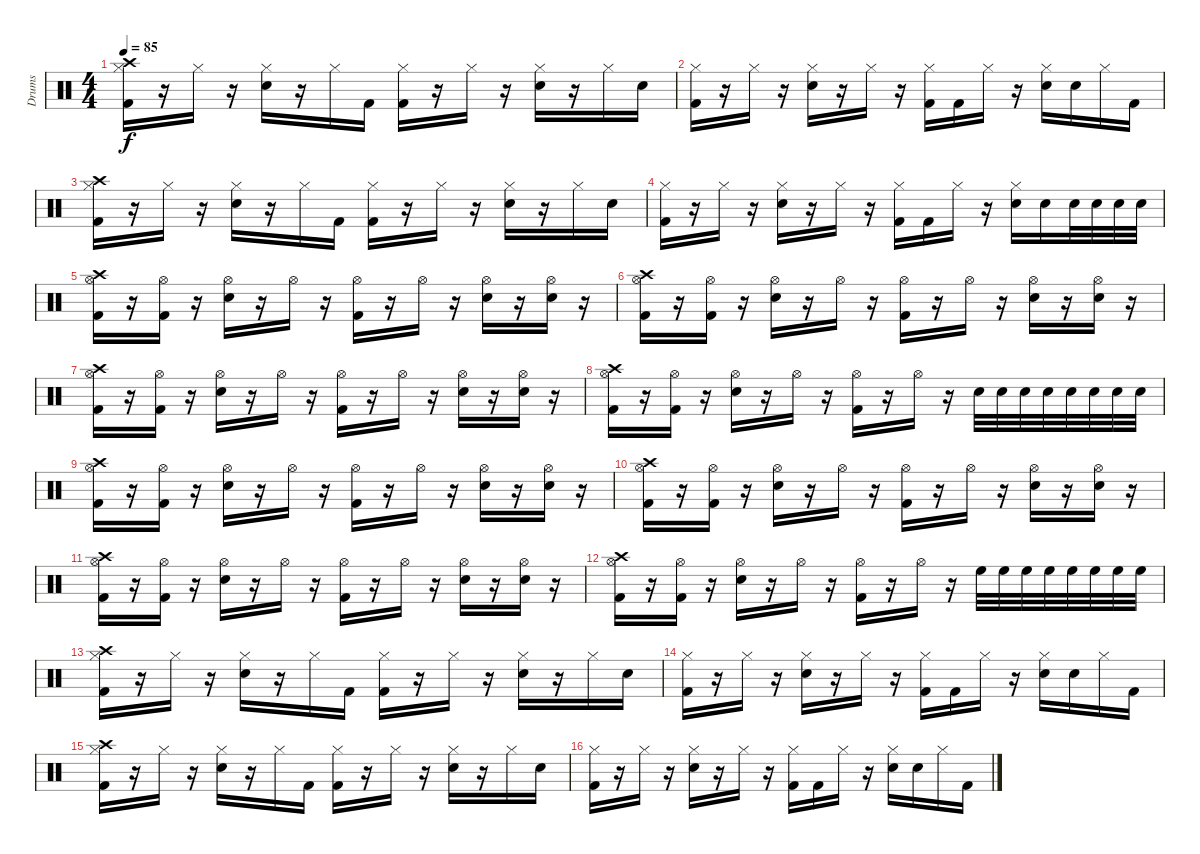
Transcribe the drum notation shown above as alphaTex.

\track ("Drums" "Drums") {instrument percussion}
\staff {score}
\articulation defaults
\ts (4 4)
\tempo 85
\clef neutral
\ks c
("Hi-Hat (closed)" "Kick (hit) 2" "Crash high (hit)").16{dy f} r.16 "Hi-Hat (closed)".16 r.16 ("Hi-Hat (closed)" "Electric Snare (hit)").16 r.16 "Hi-Hat (closed)".16 "Kick (hit) 2".16 ("Hi-Hat (closed)" "Kick (hit) 2").16 r.16 "Hi-Hat (closed)".16 r.16 ("Hi-Hat (closed)" "Electric Snare (hit)").16 r.16 "Hi-Hat (closed)".16 "Electric Snare (hit)".16 |
("Hi-Hat (closed)" "Kick (hit) 2").16 r.16 "Hi-Hat (closed)".16 r.16 ("Hi-Hat (closed)" "Electric Snare (hit)").16 r.16 "Hi-Hat (closed)".16 r.16 ("Hi-Hat (closed)" "Kick (hit) 2").16 "Kick (hit) 2".16 "Hi-Hat (closed)".16 r.16 ("Hi-Hat (closed)" "Electric Snare (hit)").16 "Electric Snare (hit)".16 "Hi-Hat (closed)".16 "Kick (hit) 2".16 |
("Hi-Hat (closed)" "Kick (hit) 2" "Crash high (hit)").16 r.16 "Hi-Hat (closed)".16 r.16 ("Hi-Hat (closed)" "Electric Snare (hit)").16 r.16 "Hi-Hat (closed)".16 "Kick (hit) 2".16 ("Hi-Hat (closed)" "Kick (hit) 2").16 r.16 "Hi-Hat (closed)".16 r.16 ("Hi-Hat (closed)" "Electric Snare (hit)").16 r.16 "Hi-Hat (closed)".16 "Electric Snare (hit)".16 |
("Hi-Hat (closed)" "Kick (hit) 2").16 r.16 "Hi-Hat (closed)".16 r.16 ("Hi-Hat (closed)" "Electric Snare (hit)").16 r.16 "Hi-Hat (closed)".16 r.16 ("Hi-Hat (closed)" "Kick (hit) 2").16 "Kick (hit) 2".16 "Hi-Hat (closed)".16 r.16 ("Hi-Hat (closed)" "Electric Snare (hit)").16 "Electric Snare (hit)".16 "Electric Snare (hit)".32 "Electric Snare (hit)".32 "Electric Snare (hit)".32 "Electric Snare (hit)".32 |
("Hi-Hat (open)" "Kick (hit) 2" "Crash high (hit)").16 r.16 ("Hi-Hat (open)" "Kick (hit) 2").16 r.16 ("Hi-Hat (open)" "Electric Snare (hit)").16 r.16 "Hi-Hat (open)".16 r.16 ("Hi-Hat (open)" "Kick (hit) 2").16 r.16 "Hi-Hat (open)".16 r.16 ("Hi-Hat (open)" "Electric Snare (hit)").16 r.16 ("Hi-Hat (open)" "Electric Snare (hit)").16 r.16 |
("Hi-Hat (open)" "Kick (hit) 2" "Crash high (hit)").16 r.16 ("Hi-Hat (open)" "Kick (hit) 2").16 r.16 ("Hi-Hat (open)" "Electric Snare (hit)").16 r.16 "Hi-Hat (open)".16 r.16 ("Hi-Hat (open)" "Kick (hit) 2").16 r.16 "Hi-Hat (open)".16 r.16 ("Hi-Hat (open)" "Electric Snare (hit)").16 r.16 ("Hi-Hat (open)" "Electric Snare (hit)").16 r.16 |
("Hi-Hat (open)" "Kick (hit) 2" "Crash high (hit)").16 r.16 ("Hi-Hat (open)" "Kick (hit) 2").16 r.16 ("Hi-Hat (open)" "Electric Snare (hit)").16 r.16 "Hi-Hat (open)".16 r.16 ("Hi-Hat (open)" "Kick (hit) 2").16 r.16 "Hi-Hat (open)".16 r.16 ("Hi-Hat (open)" "Electric Snare (hit)").16 r.16 ("Hi-Hat (open)" "Electric Snare (hit)").16 r.16 |
("Hi-Hat (open)" "Kick (hit) 2" "Crash high (hit)").16 r.16 ("Hi-Hat (open)" "Kick (hit) 2").16 r.16 ("Hi-Hat (open)" "Electric Snare (hit)").16 r.16 "Hi-Hat (open)".16 r.16 ("Hi-Hat (open)" "Kick (hit) 2").16 r.16 "Hi-Hat (open)".16 r.16 "Electric Snare (hit)".32 "Electric Snare (hit)".32 "Electric Snare (hit)".32 "Electric Snare (hit)".32 "Electric Snare (hit)".32 "Electric Snare (hit)".32 "Electric Snare (hit)".32 "Electric Snare (hit)".32 |
("Hi-Hat (open)" "Kick (hit) 2" "Crash high (hit)").16 r.16 ("Hi-Hat (open)" "Kick (hit) 2").16 r.16 ("Hi-Hat (open)" "Electric Snare (hit)").16 r.16 "Hi-Hat (open)".16 r.16 ("Hi-Hat (open)" "Kick (hit) 2").16 r.16 "Hi-Hat (open)".16 r.16 ("Hi-Hat (open)" "Electric Snare (hit)").16 r.16 ("Hi-Hat (open)" "Electric Snare (hit)").16 r.16 |
("Hi-Hat (open)" "Kick (hit) 2" "Crash high (hit)").16 r.16 ("Hi-Hat (open)" "Kick (hit) 2").16 r.16 ("Hi-Hat (open)" "Electric Snare (hit)").16 r.16 "Hi-Hat (open)".16 r.16 ("Hi-Hat (open)" "Kick (hit) 2").16 r.16 "Hi-Hat (open)".16 r.16 ("Hi-Hat (open)" "Electric Snare (hit)").16 r.16 ("Hi-Hat (open)" "Electric Snare (hit)").16 r.16 |
("Hi-Hat (open)" "Kick (hit) 2" "Crash high (hit)").16 r.16 ("Hi-Hat (open)" "Kick (hit) 2").16 r.16 ("Hi-Hat (open)" "Electric Snare (hit)").16 r.16 "Hi-Hat (open)".16 r.16 ("Hi-Hat (open)" "Kick (hit) 2").16 r.16 "Hi-Hat (open)".16 r.16 ("Hi-Hat (open)" "Electric Snare (hit)").16 r.16 ("Hi-Hat (open)" "Electric Snare (hit)").16 r.16 |
("Hi-Hat (open)" "Kick (hit) 2" "Crash high (hit)").16 r.16 ("Hi-Hat (open)" "Kick (hit) 2").16 r.16 ("Hi-Hat (open)" "Electric Snare (hit)").16 r.16 "Hi-Hat (open)".16 r.16 ("Hi-Hat (open)" "Kick (hit) 2").16 r.16 "Hi-Hat (open)".16 r.16 "High Floor Tom (hit)".32 "High Floor Tom (hit)".32 "High Floor Tom (hit)".32 "High Floor Tom (hit)".32 "High Floor Tom (hit)".32 "High Floor Tom (hit)".32 "High Floor Tom (hit)".32 "High Floor Tom (hit)".32 |
("Hi-Hat (closed)" "Kick (hit) 2" "Crash high (hit)").16 r.16 "Hi-Hat (closed)".16 r.16 ("Hi-Hat (closed)" "Electric Snare (hit)").16 r.16 "Hi-Hat (closed)".16 "Kick (hit) 2".16 ("Hi-Hat (closed)" "Kick (hit) 2").16 r.16 "Hi-Hat (closed)".16 r.16 ("Hi-Hat (closed)" "Electric Snare (hit)").16 r.16 "Hi-Hat (closed)".16 "Electric Snare (hit)".16 |
("Hi-Hat (closed)" "Kick (hit) 2").16 r.16 "Hi-Hat (closed)".16 r.16 ("Hi-Hat (closed)" "Electric Snare (hit)").16 r.16 "Hi-Hat (closed)".16 r.16 ("Hi-Hat (closed)" "Kick (hit) 2").16 "Kick (hit) 2".16 "Hi-Hat (closed)".16 r.16 ("Hi-Hat (closed)" "Electric Snare (hit)").16 "Electric Snare (hit)".16 "Hi-Hat (closed)".16 "Kick (hit) 2".16 |
("Hi-Hat (closed)" "Kick (hit) 2" "Crash high (hit)").16 r.16 "Hi-Hat (closed)".16 r.16 ("Hi-Hat (closed)" "Electric Snare (hit)").16 r.16 "Hi-Hat (closed)".16 "Kick (hit) 2".16 ("Hi-Hat (closed)" "Kick (hit) 2").16 r.16 "Hi-Hat (closed)".16 r.16 ("Hi-Hat (closed)" "Electric Snare (hit)").16 r.16 "Hi-Hat (closed)".16 "Electric Snare (hit)".16 |
("Hi-Hat (closed)" "Kick (hit) 2").16 r.16 "Hi-Hat (closed)".16 r.16 ("Hi-Hat (closed)" "Electric Snare (hit)").16 r.16 "Hi-Hat (closed)".16 r.16 ("Hi-Hat (closed)" "Kick (hit) 2").16 "Kick (hit) 2".16 "Hi-Hat (closed)".16 r.16 ("Hi-Hat (closed)" "Electric Snare (hit)").16 "Electric Snare (hit)".16 "Hi-Hat (closed)".16 "Kick (hit) 2".16
